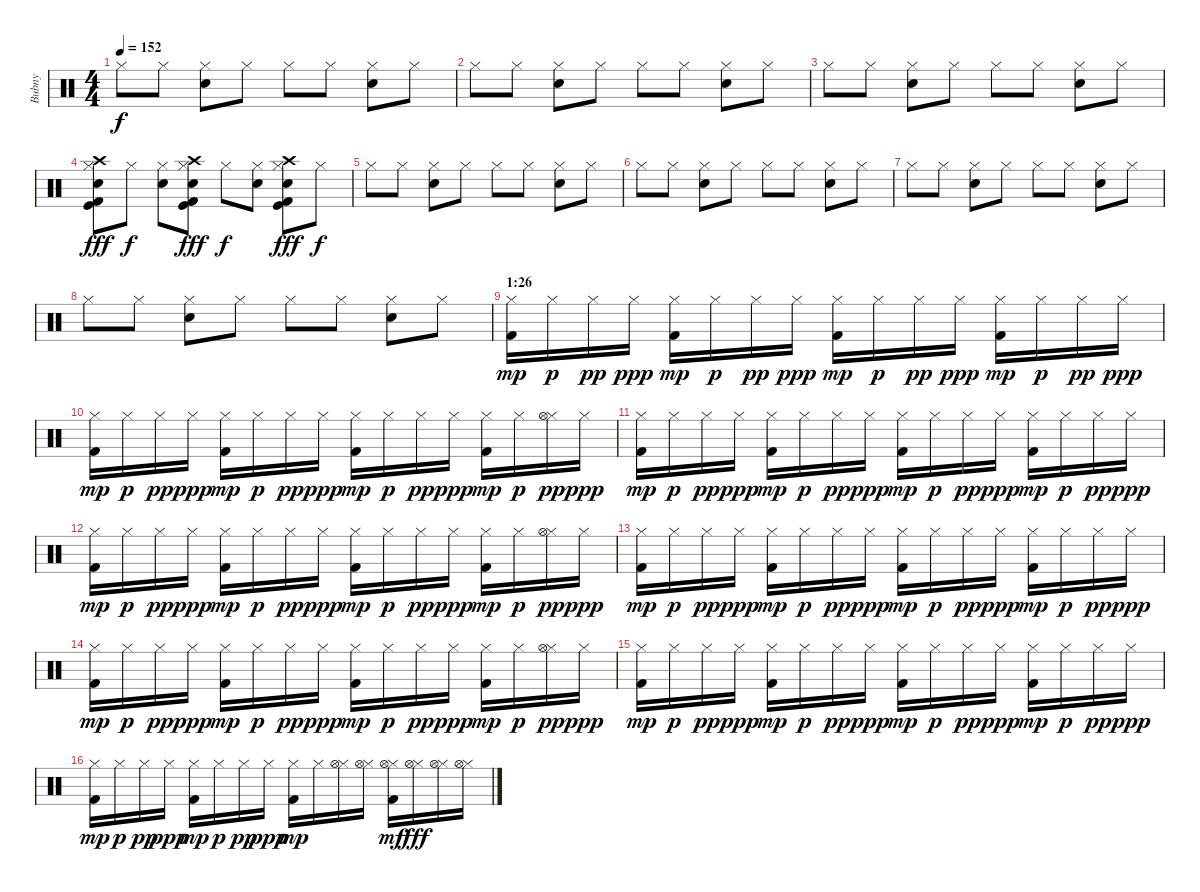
\track ("Bubny" "Bubny") {instrument percussion}
\staff {score}
\articulation defaults
\ts (4 4)
\tempo 152
\clef neutral
\ks c "Hi-Hat (closed)".8{dy f} "Hi-Hat (closed)".8
("Hi-Hat (closed)" "Snare (hit) 2").8 "Hi-Hat (closed)".8 "Hi-Hat (closed)".8 "Hi-Hat (closed)".8 ("Hi-Hat (closed)" "Snare (hit) 2").8 "Hi-Hat (closed)".8 |
"Hi-Hat (closed)".8 "Hi-Hat (closed)".8 ("Hi-Hat (closed)" "Snare (hit) 2").8 "Hi-Hat (closed)".8 "Hi-Hat (closed)".8 "Hi-Hat (closed)".8 ("Hi-Hat (closed)" "Snare (hit) 2").8 "Hi-Hat (closed)".8 |
"Hi-Hat (closed)".8 "Hi-Hat (closed)".8 ("Hi-Hat (closed)" "Snare (hit) 2").8 "Hi-Hat (closed)".8 "Hi-Hat (closed)".8 "Hi-Hat (closed)".8 ("Hi-Hat (closed)" "Snare (hit) 2").8 "Hi-Hat (closed)".8 |
("Hi-Hat (closed)" "Crash high (hit)" "Kick (hit) 2" "Kick (hit)" "Snare (hit) 2").8{dy fff} "Hi-Hat (closed)".8{dy f} ("Hi-Hat (closed)" "Snare (hit) 2").8 ("Hi-Hat (closed)" "Crash high (hit)" "Kick (hit) 2" "Kick (hit)" "Snare (hit) 2").8{dy fff} "Hi-Hat (closed)".8{dy f} ("Hi-Hat (closed)" "Snare (hit) 2").8 ("Hi-Hat (closed)" "Crash high (hit)" "Kick (hit) 2" "Kick (hit)" "Snare (hit) 2").8{dy fff} "Hi-Hat (closed)".8{dy f} |
"Hi-Hat (closed)".8 "Hi-Hat (closed)".8 ("Hi-Hat (closed)" "Snare (hit) 2").8 "Hi-Hat (closed)".8 "Hi-Hat (closed)".8 "Hi-Hat (closed)".8 ("Hi-Hat (closed)" "Snare (hit) 2").8 "Hi-Hat (closed)".8 |
"Hi-Hat (closed)".8 "Hi-Hat (closed)".8 ("Hi-Hat (closed)" "Snare (hit) 2").8 "Hi-Hat (closed)".8 "Hi-Hat (closed)".8 "Hi-Hat (closed)".8 ("Hi-Hat (closed)" "Snare (hit) 2").8 "Hi-Hat (closed)".8 |
"Hi-Hat (closed)".8 "Hi-Hat (closed)".8 ("Hi-Hat (closed)" "Snare (hit) 2").8 "Hi-Hat (closed)".8 "Hi-Hat (closed)".8 "Hi-Hat (closed)".8 ("Hi-Hat (closed)" "Snare (hit) 2").8 "Hi-Hat (closed)".8 |
"Hi-Hat (closed)".8 "Hi-Hat (closed)".8 ("Hi-Hat (closed)" "Snare (hit) 2").8 "Hi-Hat (closed)".8 "Hi-Hat (closed)".8 "Hi-Hat (closed)".8 ("Hi-Hat (closed)" "Snare (hit) 2").8 "Hi-Hat (closed)".8 |
\section ("" "1:26")
("Hi-Hat (closed)" "Kick (hit) 2").16{dy mp} "Hi-Hat (closed)".16{dy p} "Hi-Hat (closed)".16{dy pp} "Hi-Hat (closed)".16{dy ppp} ("Hi-Hat (closed)" "Kick (hit) 2").16{dy mp} "Hi-Hat (closed)".16{dy p} "Hi-Hat (closed)".16{dy pp} "Hi-Hat (closed)".16{dy ppp} ("Hi-Hat (closed)" "Kick (hit) 2").16{dy mp} "Hi-Hat (closed)".16{dy p} "Hi-Hat (closed)".16{dy pp} "Hi-Hat (closed)".16{dy ppp} ("Hi-Hat (closed)" "Kick (hit) 2").16{dy mp} "Hi-Hat (closed)".16{dy p} "Hi-Hat (closed)".16{dy pp} "Hi-Hat (closed)".16{dy ppp} |
("Hi-Hat (closed)" "Kick (hit) 2").16{dy mp} "Hi-Hat (closed)".16{dy p} "Hi-Hat (closed)".16{dy pp} "Hi-Hat (closed)".16{dy ppp} ("Hi-Hat (closed)" "Kick (hit) 2").16{dy mp} "Hi-Hat (closed)".16{dy p} "Hi-Hat (closed)".16{dy pp} "Hi-Hat (closed)".16{dy ppp} ("Hi-Hat (closed)" "Kick (hit) 2").16{dy mp} "Hi-Hat (closed)".16{dy p} "Hi-Hat (closed)".16{dy pp} "Hi-Hat (closed)".16{dy ppp} ("Hi-Hat (closed)" "Kick (hit) 2").16{dy mp} "Hi-Hat (closed)".16{dy p} ("Hi-Hat (closed)" "Hi-Hat (open)").16{dy pp} "Hi-Hat (closed)".16{dy ppp} |
("Hi-Hat (closed)" "Kick (hit) 2").16{dy mp} "Hi-Hat (closed)".16{dy p} "Hi-Hat (closed)".16{dy pp} "Hi-Hat (closed)".16{dy ppp} ("Hi-Hat (closed)" "Kick (hit) 2").16{dy mp} "Hi-Hat (closed)".16{dy p} "Hi-Hat (closed)".16{dy pp} "Hi-Hat (closed)".16{dy ppp} ("Hi-Hat (closed)" "Kick (hit) 2").16{dy mp} "Hi-Hat (closed)".16{dy p} "Hi-Hat (closed)".16{dy pp} "Hi-Hat (closed)".16{dy ppp} ("Hi-Hat (closed)" "Kick (hit) 2").16{dy mp} "Hi-Hat (closed)".16{dy p} "Hi-Hat (closed)".16{dy pp} "Hi-Hat (closed)".16{dy ppp} |
("Hi-Hat (closed)" "Kick (hit) 2").16{dy mp} "Hi-Hat (closed)".16{dy p} "Hi-Hat (closed)".16{dy pp} "Hi-Hat (closed)".16{dy ppp} ("Hi-Hat (closed)" "Kick (hit) 2").16{dy mp} "Hi-Hat (closed)".16{dy p} "Hi-Hat (closed)".16{dy pp} "Hi-Hat (closed)".16{dy ppp} ("Hi-Hat (closed)" "Kick (hit) 2").16{dy mp} "Hi-Hat (closed)".16{dy p} "Hi-Hat (closed)".16{dy pp} "Hi-Hat (closed)".16{dy ppp} ("Hi-Hat (closed)" "Kick (hit) 2").16{dy mp} "Hi-Hat (closed)".16{dy p} ("Hi-Hat (closed)" "Hi-Hat (open)").16{dy pp} "Hi-Hat (closed)".16{dy ppp} |
("Hi-Hat (closed)" "Kick (hit) 2").16{dy mp} "Hi-Hat (closed)".16{dy p} "Hi-Hat (closed)".16{dy pp} "Hi-Hat (closed)".16{dy ppp} ("Hi-Hat (closed)" "Kick (hit) 2").16{dy mp} "Hi-Hat (closed)".16{dy p} "Hi-Hat (closed)".16{dy pp} "Hi-Hat (closed)".16{dy ppp} ("Hi-Hat (closed)" "Kick (hit) 2").16{dy mp} "Hi-Hat (closed)".16{dy p} "Hi-Hat (closed)".16{dy pp} "Hi-Hat (closed)".16{dy ppp} ("Hi-Hat (closed)" "Kick (hit) 2").16{dy mp} "Hi-Hat (closed)".16{dy p} "Hi-Hat (closed)".16{dy pp} "Hi-Hat (closed)".16{dy ppp} |
("Hi-Hat (closed)" "Kick (hit) 2").16{dy mp} "Hi-Hat (closed)".16{dy p} "Hi-Hat (closed)".16{dy pp} "Hi-Hat (closed)".16{dy ppp} ("Hi-Hat (closed)" "Kick (hit) 2").16{dy mp} "Hi-Hat (closed)".16{dy p} "Hi-Hat (closed)".16{dy pp} "Hi-Hat (closed)".16{dy ppp} ("Hi-Hat (closed)" "Kick (hit) 2").16{dy mp} "Hi-Hat (closed)".16{dy p} "Hi-Hat (closed)".16{dy pp} "Hi-Hat (closed)".16{dy ppp} ("Hi-Hat (closed)" "Kick (hit) 2").16{dy mp} "Hi-Hat (closed)".16{dy p} ("Hi-Hat (closed)" "Hi-Hat (open)").16{dy pp} "Hi-Hat (closed)".16{dy ppp} |
("Hi-Hat (closed)" "Kick (hit) 2").16{dy mp} "Hi-Hat (closed)".16{dy p} "Hi-Hat (closed)".16{dy pp} "Hi-Hat (closed)".16{dy ppp} ("Hi-Hat (closed)" "Kick (hit) 2").16{dy mp} "Hi-Hat (closed)".16{dy p} "Hi-Hat (closed)".16{dy pp} "Hi-Hat (closed)".16{dy ppp} ("Hi-Hat (closed)" "Kick (hit) 2").16{dy mp} "Hi-Hat (closed)".16{dy p} "Hi-Hat (closed)".16{dy pp} "Hi-Hat (closed)".16{dy ppp} ("Hi-Hat (closed)" "Kick (hit) 2").16{dy mp} "Hi-Hat (closed)".16{dy p} "Hi-Hat (closed)".16{dy pp} "Hi-Hat (closed)".16{dy ppp} |
("Hi-Hat (closed)" "Kick (hit) 2").16{dy mp} "Hi-Hat (closed)".16{dy p} "Hi-Hat (closed)".16{dy pp} "Hi-Hat (closed)".16{dy ppp} ("Hi-Hat (closed)" "Kick (hit) 2").16{dy mp} "Hi-Hat (closed)".16{dy p} "Hi-Hat (closed)".16{dy pp} "Hi-Hat (closed)".16{dy ppp} ("Hi-Hat (closed)" "Kick (hit) 2").16{dy mp} "Hi-Hat (closed)".16 ("Hi-Hat (closed)" "Hi-Hat (open)").16 ("Hi-Hat (closed)" "Hi-Hat (open)").16 ("Hi-Hat (closed)" "Hi-Hat (open)" "Kick (hit) 2").16{dy mf} ("Hi-Hat (closed)" "Hi-Hat (open)").16{dy fff} ("Hi-Hat (closed)" "Hi-Hat (open)").16 ("Hi-Hat (closed)" "Hi-Hat (open)").16
